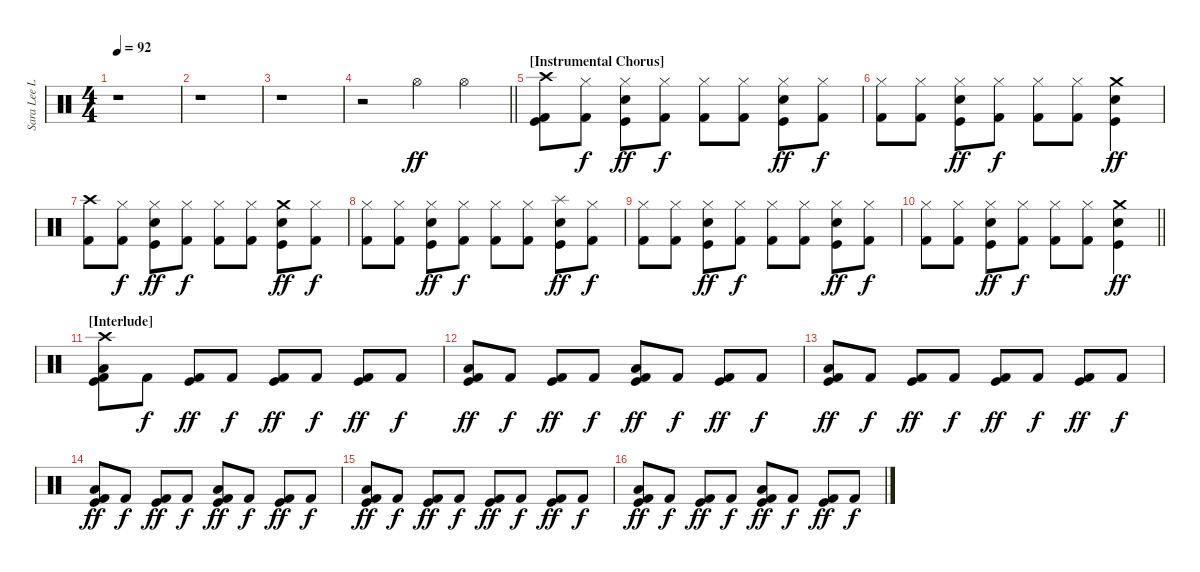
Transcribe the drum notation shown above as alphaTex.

\track ("Sara Lee Lucas (Drums)" "Sara Lee L") {instrument percussion}
\staff {score}
\articulation defaults
\ts (4 4)
\tempo 92
\clef neutral
\ks c
r.1{dy ff} |
r.1 |
r.1 |
\barLineRight lightlight
r.2 "Hi-Hat (open)".4 "Hi-Hat (open)".4 |
\section ("" "[Instrumental Chorus]")
("Crash high (hit)" "Kick (hit) 2" "Kick (hit)").8 ("Hi-Hat (closed)" "Kick (hit) 2").8{dy f} ("Hi-Hat (closed)" "Snare (hit) 2" "Kick (hit)").8{dy ff} ("Hi-Hat (closed)" "Kick (hit) 2").8{dy f} ("Hi-Hat (closed)" "Kick (hit) 2").8 ("Hi-Hat (closed)" "Kick (hit) 2").8 ("Hi-Hat (closed)" "Snare (hit) 2" "Kick (hit)").8{dy ff} ("Hi-Hat (closed)" "Kick (hit) 2").8{dy f} |
("Hi-Hat (closed)" "Kick (hit) 2").8 ("Hi-Hat (closed)" "Kick (hit) 2").8 ("Hi-Hat (closed)" "Snare (hit) 2" "Kick (hit)").8{dy ff} ("Hi-Hat (closed)" "Kick (hit) 2").8{dy f} ("Hi-Hat (closed)" "Kick (hit) 2").8 ("Hi-Hat (closed)" "Kick (hit) 2").8 ("Crash medium (hit)" "Snare (hit) 2" "Kick (hit)").4{dy ff} |
("Crash high (hit)" "Kick (hit) 2").8 ("Hi-Hat (closed)" "Kick (hit) 2").8{dy f} ("Hi-Hat (closed)" "Snare (hit) 2" "Kick (hit)").8{dy ff} ("Hi-Hat (closed)" "Kick (hit) 2").8{dy f} ("Hi-Hat (closed)" "Kick (hit) 2").8 ("Hi-Hat (closed)" "Kick (hit) 2").8 ("Crash medium (hit)" "Snare (hit) 2" "Kick (hit)").8{dy ff} ("Hi-Hat (closed)" "Kick (hit) 2").8{dy f} |
("Hi-Hat (closed)" "Kick (hit) 2").8 ("Hi-Hat (closed)" "Kick (hit) 2").8 ("Hi-Hat (closed)" "Snare (hit) 2" "Kick (hit)").8{dy ff} ("Hi-Hat (closed)" "Kick (hit) 2").8{dy f} ("Hi-Hat (closed)" "Kick (hit) 2").8 ("Hi-Hat (closed)" "Kick (hit) 2").8 ("Splash (hit)" "Snare (hit) 2" "Kick (hit)").8{dy ff} ("Hi-Hat (closed)" "Kick (hit) 2").8{dy f} |
("Hi-Hat (closed)" "Kick (hit) 2").8 ("Hi-Hat (closed)" "Kick (hit) 2").8 ("Hi-Hat (closed)" "Snare (hit) 2" "Kick (hit)").8{dy ff} ("Hi-Hat (closed)" "Kick (hit) 2").8{dy f} ("Hi-Hat (closed)" "Kick (hit) 2").8 ("Hi-Hat (closed)" "Kick (hit) 2").8 ("Hi-Hat (closed)" "Snare (hit) 2" "Kick (hit)").8{dy ff} ("Hi-Hat (closed)" "Kick (hit) 2").8{dy f} |
\barLineRight lightlight
("Hi-Hat (closed)" "Kick (hit) 2").8 ("Hi-Hat (closed)" "Kick (hit) 2").8 ("Hi-Hat (closed)" "Snare (hit) 2" "Kick (hit)").8{dy ff} ("Hi-Hat (closed)" "Kick (hit) 2").8{dy f} ("Hi-Hat (closed)" "Kick (hit) 2").8 ("Hi-Hat (closed)" "Kick (hit) 2").8 ("Crash medium (hit)" "Snare (hit) 2" "Kick (hit)").4{dy ff} |
\section ("" "[Interlude]")
("Crash high (hit)" "Low Floor Tom (hit)" "Kick (hit) 2" "Kick (hit)").8 "Kick (hit) 2".8{dy f} ("Kick (hit) 2" "Kick (hit)").8{dy ff} "Kick (hit) 2".8{dy f} ("Kick (hit) 2" "Kick (hit)").8{dy ff} "Kick (hit) 2".8{dy f} ("Kick (hit) 2" "Kick (hit)").8{dy ff} "Kick (hit) 2".8{dy f} |
("Low Floor Tom (hit)" "Kick (hit) 2" "Kick (hit)").8{dy ff} "Kick (hit) 2".8{dy f} ("Kick (hit) 2" "Kick (hit)").8{dy ff} "Kick (hit) 2".8{dy f} ("Low Floor Tom (hit)" "Kick (hit) 2" "Kick (hit)").8{dy ff} "Kick (hit) 2".8{dy f} ("Kick (hit) 2" "Kick (hit)").8{dy ff} "Kick (hit) 2".8{dy f} |
("Low Floor Tom (hit)" "Kick (hit) 2" "Kick (hit)").8{dy ff} "Kick (hit) 2".8{dy f} ("Kick (hit) 2" "Kick (hit)").8{dy ff} "Kick (hit) 2".8{dy f} ("Kick (hit) 2" "Kick (hit)").8{dy ff} "Kick (hit) 2".8{dy f} ("Kick (hit) 2" "Kick (hit)").8{dy ff} "Kick (hit) 2".8{dy f} |
("Low Floor Tom (hit)" "Kick (hit) 2" "Kick (hit)").8{dy ff} "Kick (hit) 2".8{dy f} ("Kick (hit) 2" "Kick (hit)").8{dy ff} "Kick (hit) 2".8{dy f} ("Low Floor Tom (hit)" "Kick (hit) 2" "Kick (hit)").8{dy ff} "Kick (hit) 2".8{dy f} ("Kick (hit) 2" "Kick (hit)").8{dy ff} "Kick (hit) 2".8{dy f} |
("Low Floor Tom (hit)" "Kick (hit) 2" "Kick (hit)").8{dy ff} "Kick (hit) 2".8{dy f} ("Kick (hit) 2" "Kick (hit)").8{dy ff} "Kick (hit) 2".8{dy f} ("Kick (hit) 2" "Kick (hit)").8{dy ff} "Kick (hit) 2".8{dy f} ("Kick (hit) 2" "Kick (hit)").8{dy ff} "Kick (hit) 2".8{dy f} |
("Low Floor Tom (hit)" "Kick (hit) 2" "Kick (hit)").8{dy ff} "Kick (hit) 2".8{dy f} ("Kick (hit) 2" "Kick (hit)").8{dy ff} "Kick (hit) 2".8{dy f} ("Low Floor Tom (hit)" "Kick (hit) 2" "Kick (hit)").8{dy ff} "Kick (hit) 2".8{dy f} ("Kick (hit) 2" "Kick (hit)").8{dy ff} "Kick (hit) 2".8{dy f}
